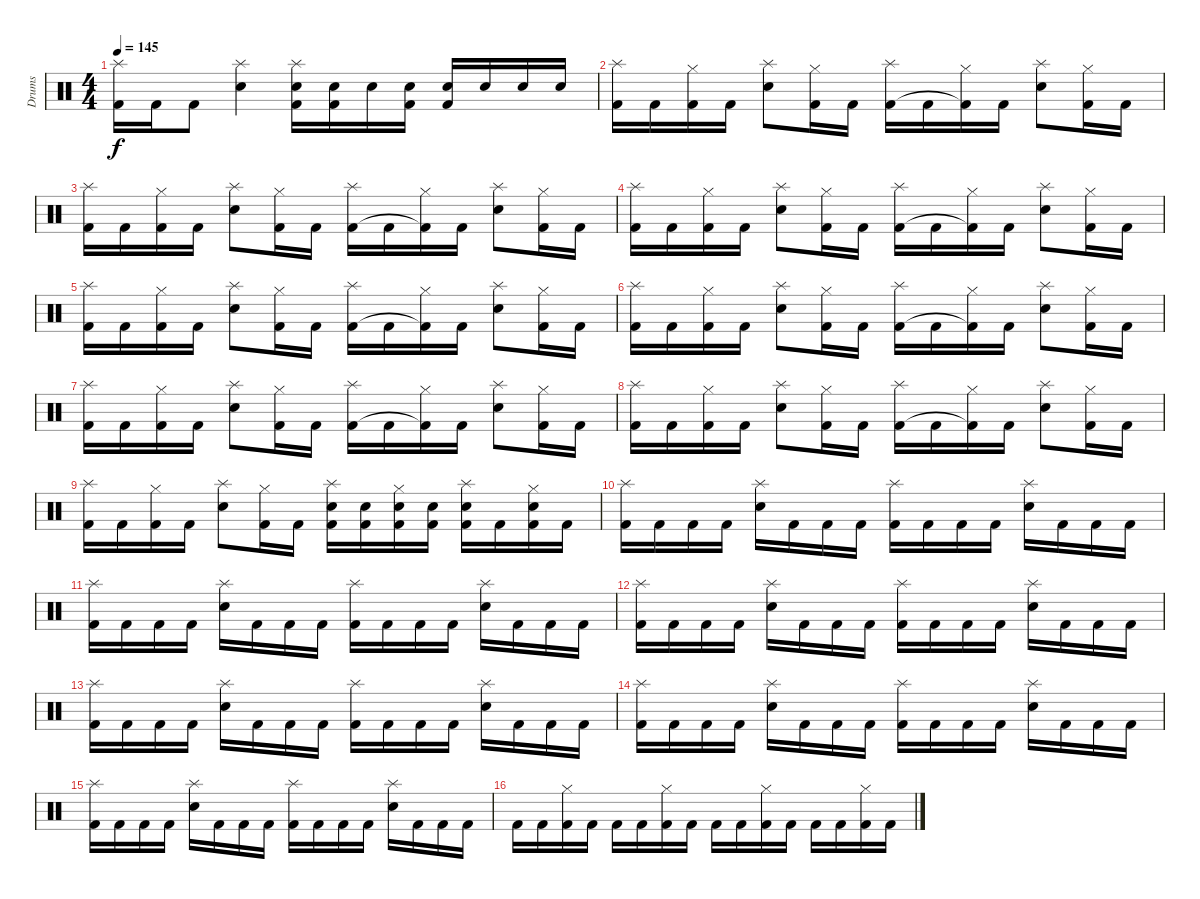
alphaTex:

\track ("Drums" "Drums") {instrument percussion}
\staff {score}
\articulation defaults
\ts (4 4)
\tempo 145
\clef neutral
\ks c
("Splash (hit)" "Kick (hit) 2").16{dy f} "Kick (hit) 2".16 "Kick (hit) 2".8 ("Splash (hit)" "Electric Snare (hit)").4 ("Splash (hit)" "Electric Snare (hit)" "Kick (hit) 2").16 ("Electric Snare (hit)" "Kick (hit) 2").16 "Electric Snare (hit)".16 ("Electric Snare (hit)" "Kick (hit) 2").16 ("Electric Snare (hit)" "Kick (hit) 2").16 "Electric Snare (hit)".16 "Electric Snare (hit)".16 "Electric Snare (hit)".16 |
("Splash (hit)" "Kick (hit) 2").16 "Kick (hit) 2".16 ("Hi-Hat (closed)" "Kick (hit) 2").16 "Kick (hit) 2".16 ("Splash (hit)" "Electric Snare (hit)").8 ("Hi-Hat (closed)" "Kick (hit) 2").16 "Kick (hit) 2".16 ("Splash (hit)" "Kick (hit) 2").16 "Kick (hit) 2".16 ("Hi-Hat (closed)" "Kick (hit) 2"{t}).16 "Kick (hit) 2".16 ("Splash (hit)" "Electric Snare (hit)").8 ("Hi-Hat (closed)" "Kick (hit) 2").16 "Kick (hit) 2".16 |
("Splash (hit)" "Kick (hit) 2").16 "Kick (hit) 2".16 ("Hi-Hat (closed)" "Kick (hit) 2").16 "Kick (hit) 2".16 ("Splash (hit)" "Electric Snare (hit)").8 ("Hi-Hat (closed)" "Kick (hit) 2").16 "Kick (hit) 2".16 ("Splash (hit)" "Kick (hit) 2").16 "Kick (hit) 2".16 ("Hi-Hat (closed)" "Kick (hit) 2"{t}).16 "Kick (hit) 2".16 ("Splash (hit)" "Electric Snare (hit)").8 ("Hi-Hat (closed)" "Kick (hit) 2").16 "Kick (hit) 2".16 |
("Splash (hit)" "Kick (hit) 2").16 "Kick (hit) 2".16 ("Hi-Hat (closed)" "Kick (hit) 2").16 "Kick (hit) 2".16 ("Splash (hit)" "Electric Snare (hit)").8 ("Hi-Hat (closed)" "Kick (hit) 2").16 "Kick (hit) 2".16 ("Splash (hit)" "Kick (hit) 2").16 "Kick (hit) 2".16 ("Hi-Hat (closed)" "Kick (hit) 2"{t}).16 "Kick (hit) 2".16 ("Splash (hit)" "Electric Snare (hit)").8 ("Hi-Hat (closed)" "Kick (hit) 2").16 "Kick (hit) 2".16 |
("Splash (hit)" "Kick (hit) 2").16 "Kick (hit) 2".16 ("Hi-Hat (closed)" "Kick (hit) 2").16 "Kick (hit) 2".16 ("Splash (hit)" "Electric Snare (hit)").8 ("Hi-Hat (closed)" "Kick (hit) 2").16 "Kick (hit) 2".16 ("Splash (hit)" "Kick (hit) 2").16 "Kick (hit) 2".16 ("Hi-Hat (closed)" "Kick (hit) 2"{t}).16 "Kick (hit) 2".16 ("Splash (hit)" "Electric Snare (hit)").8 ("Hi-Hat (closed)" "Kick (hit) 2").16 "Kick (hit) 2".16 |
("Splash (hit)" "Kick (hit) 2").16 "Kick (hit) 2".16 ("Hi-Hat (closed)" "Kick (hit) 2").16 "Kick (hit) 2".16 ("Splash (hit)" "Electric Snare (hit)").8 ("Hi-Hat (closed)" "Kick (hit) 2").16 "Kick (hit) 2".16 ("Splash (hit)" "Kick (hit) 2").16 "Kick (hit) 2".16 ("Hi-Hat (closed)" "Kick (hit) 2"{t}).16 "Kick (hit) 2".16 ("Splash (hit)" "Electric Snare (hit)").8 ("Hi-Hat (closed)" "Kick (hit) 2").16 "Kick (hit) 2".16 |
("Splash (hit)" "Kick (hit) 2").16 "Kick (hit) 2".16 ("Hi-Hat (closed)" "Kick (hit) 2").16 "Kick (hit) 2".16 ("Splash (hit)" "Electric Snare (hit)").8 ("Hi-Hat (closed)" "Kick (hit) 2").16 "Kick (hit) 2".16 ("Splash (hit)" "Kick (hit) 2").16 "Kick (hit) 2".16 ("Hi-Hat (closed)" "Kick (hit) 2"{t}).16 "Kick (hit) 2".16 ("Splash (hit)" "Electric Snare (hit)").8 ("Hi-Hat (closed)" "Kick (hit) 2").16 "Kick (hit) 2".16 |
("Splash (hit)" "Kick (hit) 2").16 "Kick (hit) 2".16 ("Hi-Hat (closed)" "Kick (hit) 2").16 "Kick (hit) 2".16 ("Splash (hit)" "Electric Snare (hit)").8 ("Hi-Hat (closed)" "Kick (hit) 2").16 "Kick (hit) 2".16 ("Splash (hit)" "Kick (hit) 2").16 "Kick (hit) 2".16 ("Hi-Hat (closed)" "Kick (hit) 2"{t}).16 "Kick (hit) 2".16 ("Splash (hit)" "Electric Snare (hit)").8 ("Hi-Hat (closed)" "Kick (hit) 2").16 "Kick (hit) 2".16 |
("Splash (hit)" "Kick (hit) 2").16 "Kick (hit) 2".16 ("Hi-Hat (closed)" "Kick (hit) 2").16 "Kick (hit) 2".16 ("Splash (hit)" "Electric Snare (hit)").8 ("Hi-Hat (closed)" "Kick (hit) 2").16 "Kick (hit) 2".16 ("Splash (hit)" "Electric Snare (hit)" "Kick (hit) 2").16 ("Electric Snare (hit)" "Kick (hit) 2").16 ("Hi-Hat (closed)" "Electric Snare (hit)" "Kick (hit) 2").16 ("Electric Snare (hit)" "Kick (hit) 2").16 ("Splash (hit)" "Electric Snare (hit)" "Kick (hit) 2").16 "Kick (hit) 2".16 ("Hi-Hat (closed)" "Electric Snare (hit)" "Kick (hit) 2").16 "Kick (hit) 2".16 |
("Splash (hit)" "Kick (hit) 2").16 "Kick (hit) 2".16 "Kick (hit) 2".16 "Kick (hit) 2".16 ("Splash (hit)" "Electric Snare (hit)").16 "Kick (hit) 2".16 "Kick (hit) 2".16 "Kick (hit) 2".16 ("Splash (hit)" "Kick (hit) 2").16 "Kick (hit) 2".16 "Kick (hit) 2".16 "Kick (hit) 2".16 ("Splash (hit)" "Electric Snare (hit)").16 "Kick (hit) 2".16 "Kick (hit) 2".16 "Kick (hit) 2".16 |
("Splash (hit)" "Kick (hit) 2").16 "Kick (hit) 2".16 "Kick (hit) 2".16 "Kick (hit) 2".16 ("Splash (hit)" "Electric Snare (hit)").16 "Kick (hit) 2".16 "Kick (hit) 2".16 "Kick (hit) 2".16 ("Splash (hit)" "Kick (hit) 2").16 "Kick (hit) 2".16 "Kick (hit) 2".16 "Kick (hit) 2".16 ("Splash (hit)" "Electric Snare (hit)").16 "Kick (hit) 2".16 "Kick (hit) 2".16 "Kick (hit) 2".16 |
("Splash (hit)" "Kick (hit) 2").16 "Kick (hit) 2".16 "Kick (hit) 2".16 "Kick (hit) 2".16 ("Splash (hit)" "Electric Snare (hit)").16 "Kick (hit) 2".16 "Kick (hit) 2".16 "Kick (hit) 2".16 ("Splash (hit)" "Kick (hit) 2").16 "Kick (hit) 2".16 "Kick (hit) 2".16 "Kick (hit) 2".16 ("Splash (hit)" "Electric Snare (hit)").16 "Kick (hit) 2".16 "Kick (hit) 2".16 "Kick (hit) 2".16 |
("Splash (hit)" "Kick (hit) 2").16 "Kick (hit) 2".16 "Kick (hit) 2".16 "Kick (hit) 2".16 ("Splash (hit)" "Electric Snare (hit)").16 "Kick (hit) 2".16 "Kick (hit) 2".16 "Kick (hit) 2".16 ("Splash (hit)" "Kick (hit) 2").16 "Kick (hit) 2".16 "Kick (hit) 2".16 "Kick (hit) 2".16 ("Splash (hit)" "Electric Snare (hit)").16 "Kick (hit) 2".16 "Kick (hit) 2".16 "Kick (hit) 2".16 |
("Splash (hit)" "Kick (hit) 2").16 "Kick (hit) 2".16 "Kick (hit) 2".16 "Kick (hit) 2".16 ("Splash (hit)" "Electric Snare (hit)").16 "Kick (hit) 2".16 "Kick (hit) 2".16 "Kick (hit) 2".16 ("Splash (hit)" "Kick (hit) 2").16 "Kick (hit) 2".16 "Kick (hit) 2".16 "Kick (hit) 2".16 ("Splash (hit)" "Electric Snare (hit)").16 "Kick (hit) 2".16 "Kick (hit) 2".16 "Kick (hit) 2".16 |
("Splash (hit)" "Kick (hit) 2").16 "Kick (hit) 2".16 "Kick (hit) 2".16 "Kick (hit) 2".16 ("Splash (hit)" "Electric Snare (hit)").16 "Kick (hit) 2".16 "Kick (hit) 2".16 "Kick (hit) 2".16 ("Splash (hit)" "Kick (hit) 2").16 "Kick (hit) 2".16 "Kick (hit) 2".16 "Kick (hit) 2".16 ("Splash (hit)" "Electric Snare (hit)").16 "Kick (hit) 2".16 "Kick (hit) 2".16 "Kick (hit) 2".16 |
"Kick (hit) 2".16 "Kick (hit) 2".16 ("Hi-Hat (closed)" "Kick (hit) 2").16 "Kick (hit) 2".16 "Kick (hit) 2".16 "Kick (hit) 2".16 ("Hi-Hat (closed)" "Kick (hit) 2").16 "Kick (hit) 2".16 "Kick (hit) 2".16 "Kick (hit) 2".16 ("Hi-Hat (closed)" "Kick (hit) 2").16 "Kick (hit) 2".16 "Kick (hit) 2".16 "Kick (hit) 2".16 ("Hi-Hat (closed)" "Kick (hit) 2").16 "Kick (hit) 2".16
